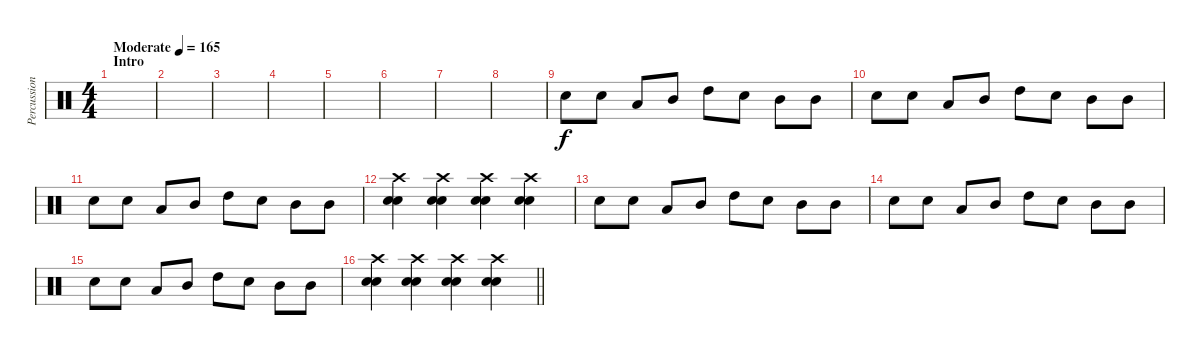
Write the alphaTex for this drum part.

\track ("Percussion" "Percussion") {instrument percussion}
\staff {score}
\articulation defaults
\ts (4 4)
\section ("" "Intro")
\tempo (165 "Moderate")
\clef neutral
\ks c
|
|
|
|
|
|
|
|
"Electric Snare (hit)".8 "Snare (hit) 2".8 "Low Tom (hit)".8 "Mid Tom (hit)".8 "High Tom (hit)".8 "Snare (hit) 2".8 "Mid Tom (hit)".8 "Mid Tom (hit)".8 |
"Electric Snare (hit)".8 "Snare (hit) 2".8 "Low Tom (hit)".8 "Mid Tom (hit)".8 "High Tom (hit)".8 "Snare (hit) 2".8 "Mid Tom (hit)".8 "Mid Tom (hit)".8 |
"Electric Snare (hit)".8 "Snare (hit) 2".8 "Low Tom (hit)".8 "Mid Tom (hit)".8 "High Tom (hit)".8 "Snare (hit) 2".8 "Mid Tom (hit)".8 "Mid Tom (hit)".8 |
("Electric Snare (hit)" "Snare (hit) 2" "Crash high (hit)").4 ("Electric Snare (hit)" "Snare (hit) 2" "Crash high (hit)").4 ("Electric Snare (hit)" "Snare (hit) 2" "Crash high (hit)").4 ("Electric Snare (hit)" "Snare (hit) 2" "Crash high (hit)").4 |
"Electric Snare (hit)".8 "Snare (hit) 2".8 "Low Tom (hit)".8 "Mid Tom (hit)".8 "High Tom (hit)".8 "Snare (hit) 2".8 "Mid Tom (hit)".8 "Mid Tom (hit)".8 |
"Electric Snare (hit)".8 "Snare (hit) 2".8 "Low Tom (hit)".8 "Mid Tom (hit)".8 "High Tom (hit)".8 "Snare (hit) 2".8 "Mid Tom (hit)".8 "Mid Tom (hit)".8 |
"Electric Snare (hit)".8 "Snare (hit) 2".8 "Low Tom (hit)".8 "Mid Tom (hit)".8 "High Tom (hit)".8 "Snare (hit) 2".8 "Mid Tom (hit)".8 "Mid Tom (hit)".8 |
\barLineRight lightlight
("Electric Snare (hit)" "Snare (hit) 2" "Crash high (hit)").4 ("Electric Snare (hit)" "Snare (hit) 2" "Crash high (hit)").4 ("Electric Snare (hit)" "Snare (hit) 2" "Crash high (hit)").4 ("Electric Snare (hit)" "Snare (hit) 2" "Crash high (hit)").4
